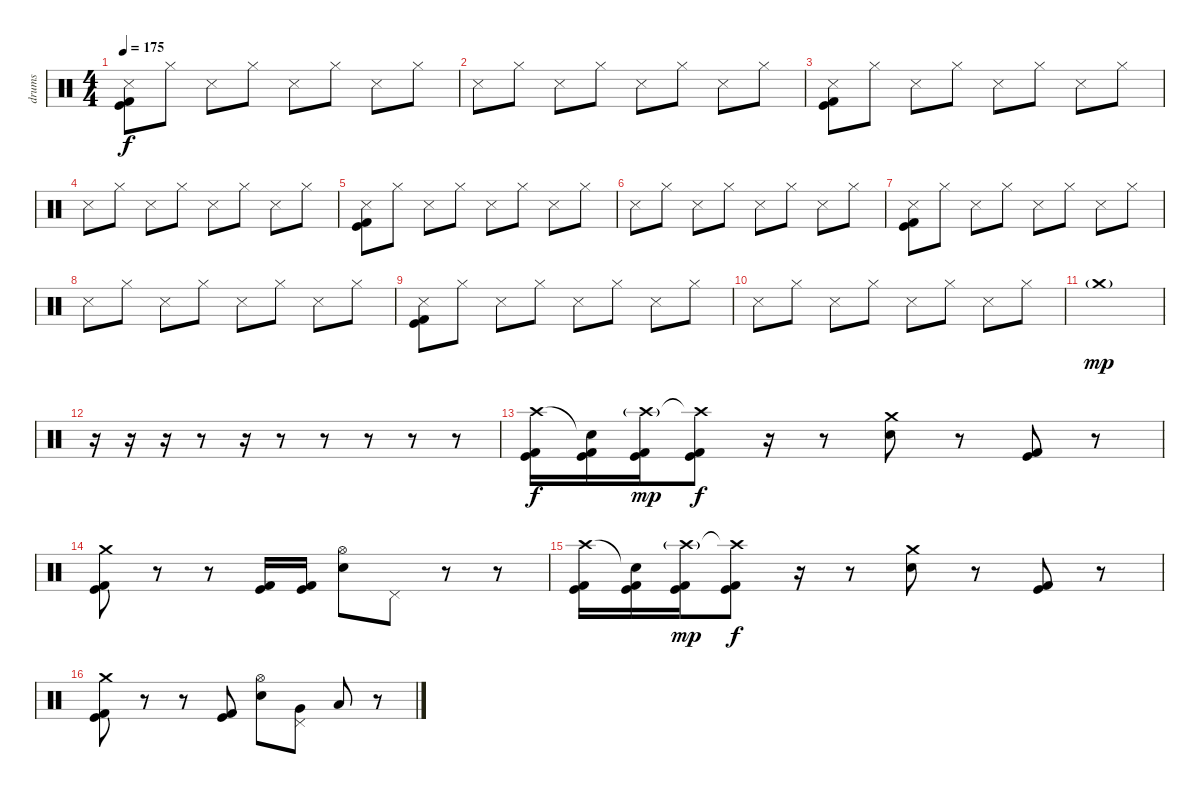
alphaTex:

\track ("drums" "drums") {instrument percussion}
\staff {score}
\articulation defaults
\ts (4 4)
\tempo 175
\clef neutral
\ks c
("Snare (side stick) 3" "Kick (hit)" "Kick (hit) 2").8{dy f} "Hi-Hat (closed)".8 "Snare (side stick) 3".8 "Hi-Hat (closed)".8 "Snare (side stick) 3".8 "Hi-Hat (closed)".8 "Snare (side stick) 3".8 "Hi-Hat (closed)".8 |
"Snare (side stick) 3".8 "Hi-Hat (closed)".8 "Snare (side stick) 3".8 "Hi-Hat (closed)".8 "Snare (side stick) 3".8 "Hi-Hat (closed)".8 "Snare (side stick) 3".8 "Hi-Hat (closed)".8 |
("Snare (side stick) 3" "Kick (hit)" "Kick (hit) 2").8 "Hi-Hat (closed)".8 "Snare (side stick) 3".8 "Hi-Hat (closed)".8 "Snare (side stick) 3".8 "Hi-Hat (closed)".8 "Snare (side stick) 3".8 "Hi-Hat (closed)".8 |
"Snare (side stick) 3".8 "Hi-Hat (closed)".8 "Snare (side stick) 3".8 "Hi-Hat (closed)".8 "Snare (side stick) 3".8 "Hi-Hat (closed)".8 "Snare (side stick) 3".8 "Hi-Hat (closed)".8 |
("Snare (side stick) 3" "Kick (hit)" "Kick (hit) 2").8 "Hi-Hat (closed)".8 "Snare (side stick) 3".8 "Hi-Hat (closed)".8 "Snare (side stick) 3".8 "Hi-Hat (closed)".8 "Snare (side stick) 3".8 "Hi-Hat (closed)".8 |
"Snare (side stick) 3".8 "Hi-Hat (closed)".8 "Snare (side stick) 3".8 "Hi-Hat (closed)".8 "Snare (side stick) 3".8 "Hi-Hat (closed)".8 "Snare (side stick) 3".8 "Hi-Hat (closed)".8 |
("Snare (side stick) 3" "Kick (hit)" "Kick (hit) 2").8 "Hi-Hat (closed)".8 "Snare (side stick) 3".8 "Hi-Hat (closed)".8 "Snare (side stick) 3".8 "Hi-Hat (closed)".8 "Snare (side stick) 3".8 "Hi-Hat (closed)".8 |
"Snare (side stick) 3".8 "Hi-Hat (closed)".8 "Snare (side stick) 3".8 "Hi-Hat (closed)".8 "Snare (side stick) 3".8 "Hi-Hat (closed)".8 "Snare (side stick) 3".8 "Hi-Hat (closed)".8 |
("Snare (side stick) 3" "Kick (hit)" "Kick (hit) 2").8 "Hi-Hat (closed)".8 "Snare (side stick) 3".8 "Hi-Hat (closed)".8 "Snare (side stick) 3".8 "Hi-Hat (closed)".8 "Snare (side stick) 3".8 "Hi-Hat (closed)".8 |
"Snare (side stick) 3".8 "Hi-Hat (closed)".8 "Snare (side stick) 3".8 "Hi-Hat (closed)".8 "Snare (side stick) 3".8 "Hi-Hat (closed)".8 "Snare (side stick) 3".8 "Hi-Hat (closed)".8 |
"Crash medium (hit)"{g}.1{dy mp} |
r.16 r.16 r.16 r.8 r.16 r.8 r.8 r.8 r.8 r.8 |
("Kick (hit)" "Kick (hit) 2" "Crash high (hit)").16{dy f} ("Kick (hit)" "Kick (hit) 2" "Snare (hit)"{t}).16 ("Kick (hit)" "Kick (hit) 2" "Crash high (hit)"{g}).16{dy mp} ("Kick (hit)" "Kick (hit) 2" "Crash high (hit)"{t}).8{dy f} r.16 r.8 ("Electric Snare (hit)" "Crash medium (hit)").8 r.8 ("Kick (hit)" "Kick (hit) 2").8 r.8 |
("Kick (hit)" "Kick (hit) 2" "Crash medium (hit)").8 r.8 r.8 ("Kick (hit)" "Kick (hit) 2").16 ("Kick (hit)" "Kick (hit) 2").16 ("Electric Snare (hit)" "Hi-Hat (open)").8 "Pedal Hi-Hat (hit)".8 r.8 r.8 |
("Kick (hit)" "Kick (hit) 2" "Crash high (hit)").16 ("Kick (hit)" "Kick (hit) 2" "Snare (hit)"{t}).16 ("Kick (hit)" "Kick (hit) 2" "Crash high (hit)"{g}).16{dy mp} ("Kick (hit)" "Kick (hit) 2" "Crash high (hit)"{t}).8{dy f} r.16 r.8 ("Electric Snare (hit)" "Crash medium (hit)").8 r.8 ("Kick (hit)" "Kick (hit) 2").8 r.8 |
("Kick (hit)" "Kick (hit) 2" "Crash medium (hit)").8 r.8 r.8 ("Kick (hit)" "Kick (hit) 2").8 ("Electric Snare (hit)" "Hi-Hat (open)").8 ("Very Low Tom (hit)" "Pedal Hi-Hat (hit)").8 "Low Floor Tom (hit)".8 r.8
